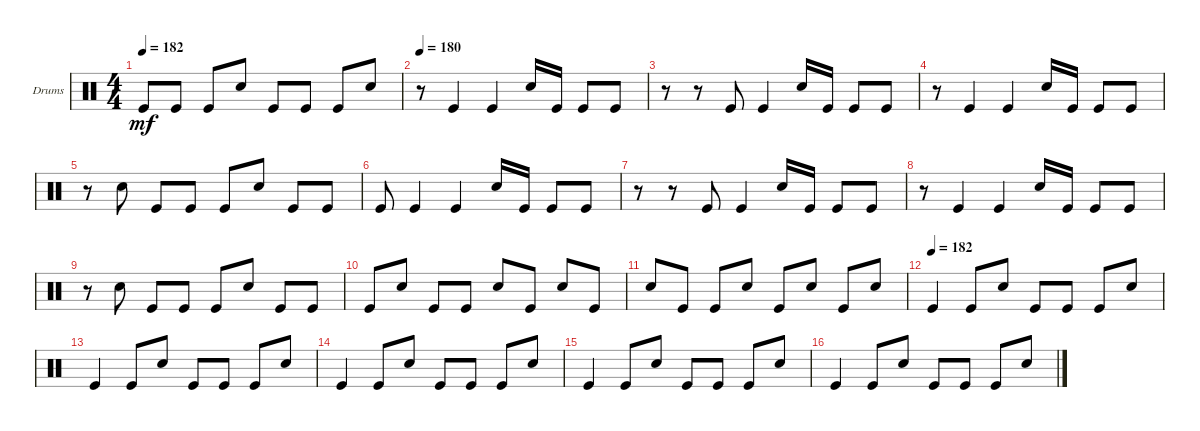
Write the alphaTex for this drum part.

\defaultSystemsLayout 4
\bracketExtendMode groupsimilarinstruments
\firstSystemTrackNameOrientation horizontal
\otherSystemsTrackNameOrientation horizontal
\track ("Drumkit" "Drums") {instrument percussion}
\staff {score}
\articulation defaults
\ts (4 4)
\tempo 182
\clef neutral
\ks c "Kick (hit)".8{dy mf} "Kick (hit)".8 "Kick (hit)".8 "Snare (hit) 2".8 "Kick (hit)".8 "Kick (hit)".8 "Kick (hit)".8 "Snare (hit) 2".8
|
\tempo 180
r.8 "Kick (hit)".4 "Kick (hit)".4 "Snare (hit) 2".16 "Kick (hit)".16 "Kick (hit)".8 "Kick (hit)".8 |
r.8 r.8 "Kick (hit)".8 "Kick (hit)".4 "Snare (hit) 2".16 "Kick (hit)".16 "Kick (hit)".8 "Kick (hit)".8 |
r.8 "Kick (hit)".4 "Kick (hit)".4 "Snare (hit) 2".16 "Kick (hit)".16 "Kick (hit)".8 "Kick (hit)".8 |
r.8 "Snare (hit) 2".8 "Kick (hit)".8 "Kick (hit)".8 "Kick (hit)".8 "Snare (hit) 2".8 "Kick (hit)".8 "Kick (hit)".8 |
"Kick (hit)".8 "Kick (hit)".4 "Kick (hit)".4 "Snare (hit) 2".16 "Kick (hit)".16 "Kick (hit)".8 "Kick (hit)".8 |
r.8 r.8 "Kick (hit)".8 "Kick (hit)".4 "Snare (hit) 2".16 "Kick (hit)".16 "Kick (hit)".8 "Kick (hit)".8 |
r.8 "Kick (hit)".4 "Kick (hit)".4 "Snare (hit) 2".16 "Kick (hit)".16 "Kick (hit)".8 "Kick (hit)".8 |
r.8 "Snare (hit) 2".8 "Kick (hit)".8 "Kick (hit)".8 "Kick (hit)".8 "Snare (hit) 2".8 "Kick (hit)".8 "Kick (hit)".8 |
"Kick (hit)".8 "Snare (hit) 2".8 "Kick (hit)".8 "Kick (hit)".8 "Snare (hit) 2".8 "Kick (hit)".8 "Snare (hit) 2".8 "Kick (hit)".8 |
"Snare (hit) 2".8 "Kick (hit)".8 "Kick (hit)".8 "Snare (hit) 2".8 "Kick (hit)".8 "Snare (hit) 2".8 "Kick (hit)".8 "Snare (hit) 2".8 |
\tempo (182)
"Kick (hit)".4 "Kick (hit)".8 "Snare (hit) 2".8 "Kick (hit)".8 "Kick (hit)".8 "Kick (hit)".8 "Snare (hit) 2".8 |
"Kick (hit)".4 "Kick (hit)".8 "Snare (hit) 2".8 "Kick (hit)".8 "Kick (hit)".8 "Kick (hit)".8 "Snare (hit) 2".8 |
"Kick (hit)".4 "Kick (hit)".8 "Snare (hit) 2".8 "Kick (hit)".8 "Kick (hit)".8 "Kick (hit)".8 "Snare (hit) 2".8 |
"Kick (hit)".4 "Kick (hit)".8 "Snare (hit) 2".8 "Kick (hit)".8 "Kick (hit)".8 "Kick (hit)".8 "Snare (hit) 2".8 |
"Kick (hit)".4 "Kick (hit)".8 "Snare (hit) 2".8 "Kick (hit)".8 "Kick (hit)".8 "Kick (hit)".8 "Snare (hit) 2".8
